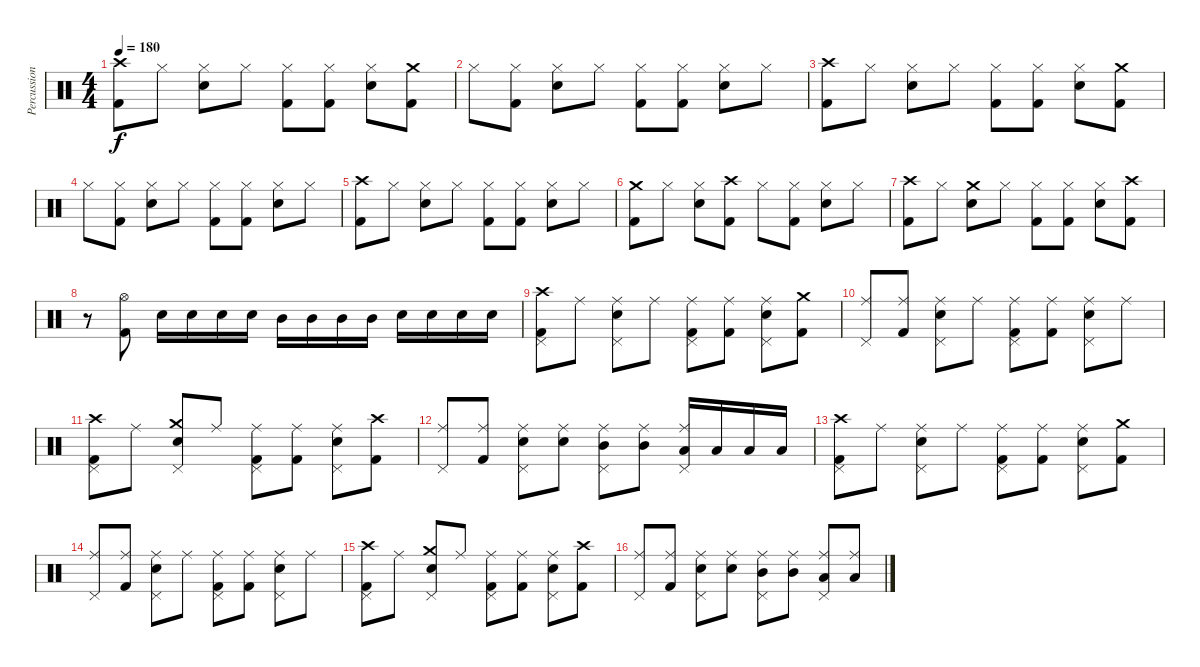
\track ("Percussion" "Percussion") {instrument percussion}
\staff {score}
\articulation defaults
\ts (4 4)
\tempo 180
\clef neutral
\ks c
("Crash high (hit)" "Kick (hit) 2").8{dy f} "Hi-Hat (closed)".8 ("Hi-Hat (closed)" "Electric Snare (hit)").8 "Hi-Hat (closed)".8 ("Hi-Hat (closed)" "Kick (hit) 2").8 ("Hi-Hat (closed)" "Kick (hit) 2").8 ("Hi-Hat (closed)" "Electric Snare (hit)").8 ("Crash medium (hit)" "Kick (hit) 2").8 |
"Hi-Hat (closed)".8 ("Hi-Hat (closed)" "Kick (hit) 2").8 ("Hi-Hat (closed)" "Electric Snare (hit)").8 "Hi-Hat (closed)".8 ("Hi-Hat (closed)" "Kick (hit) 2").8 ("Hi-Hat (closed)" "Kick (hit) 2").8 ("Hi-Hat (closed)" "Electric Snare (hit)").8 "Hi-Hat (closed)".8 |
("Crash high (hit)" "Kick (hit) 2").8 "Hi-Hat (closed)".8 ("Hi-Hat (closed)" "Electric Snare (hit)").8 "Hi-Hat (closed)".8 ("Hi-Hat (closed)" "Kick (hit) 2").8 ("Hi-Hat (closed)" "Kick (hit) 2").8 ("Hi-Hat (closed)" "Electric Snare (hit)").8 ("Crash medium (hit)" "Kick (hit) 2").8 |
"Hi-Hat (closed)".8 ("Hi-Hat (closed)" "Kick (hit) 2").8 ("Hi-Hat (closed)" "Electric Snare (hit)").8 "Hi-Hat (closed)".8 ("Hi-Hat (closed)" "Kick (hit) 2").8 ("Hi-Hat (closed)" "Kick (hit) 2").8 ("Hi-Hat (closed)" "Electric Snare (hit)").8 "Hi-Hat (closed)".8 |
("Crash high (hit)" "Kick (hit) 2").8 "Hi-Hat (closed)".8 ("Hi-Hat (closed)" "Electric Snare (hit)").8 "Hi-Hat (closed)".8 ("Hi-Hat (closed)" "Kick (hit) 2").8 ("Hi-Hat (closed)" "Kick (hit) 2").8 ("Hi-Hat (closed)" "Electric Snare (hit)").8 "Hi-Hat (closed)".8 |
("Crash medium (hit)" "Kick (hit) 2").8 "Hi-Hat (closed)".8 ("Hi-Hat (closed)" "Electric Snare (hit)").8 ("Crash high (hit)" "Kick (hit) 2").8 "Hi-Hat (closed)".8 ("Hi-Hat (closed)" "Kick (hit) 2").8 ("Hi-Hat (closed)" "Electric Snare (hit)").8 "Hi-Hat (closed)".8 |
("Crash high (hit)" "Kick (hit) 2").8 "Hi-Hat (closed)".8 ("Crash medium (hit)" "Electric Snare (hit)").8 "Hi-Hat (closed)".8 ("Hi-Hat (closed)" "Kick (hit) 2").8 ("Hi-Hat (closed)" "Kick (hit) 2").8 ("Hi-Hat (closed)" "Electric Snare (hit)").8 ("Crash high (hit)" "Kick (hit) 2").8 |
r.8 ("Hi-Hat (open)" "Kick (hit) 2").8 "Electric Snare (hit)".16 "Electric Snare (hit)".16 "Electric Snare (hit)".16 "Electric Snare (hit)".16 "Mid Tom (hit)".16 "Mid Tom (hit)".16 "Mid Tom (hit)".16 "Mid Tom (hit)".16 "Electric Snare (hit)".16 "Electric Snare (hit)".16 "Electric Snare (hit)".16 "Electric Snare (hit)".16 |
("Crash high (hit)" "Pedal Hi-Hat (hit)" "Kick (hit) 2").8 "Ride (middle)".8 ("Ride (middle)" "Pedal Hi-Hat (hit)" "Electric Snare (hit)").8 "Ride (middle)".8 ("Ride (middle)" "Pedal Hi-Hat (hit)" "Kick (hit) 2").8 ("Ride (middle)" "Kick (hit) 2").8 ("Ride (middle)" "Pedal Hi-Hat (hit)" "Electric Snare (hit)").8 ("Crash medium (hit)" "Kick (hit) 2").8 |
("Ride (middle)" "Pedal Hi-Hat (hit)").8 ("Ride (middle)" "Kick (hit) 2").8 ("Ride (middle)" "Pedal Hi-Hat (hit)" "Electric Snare (hit)").8 "Ride (middle)".8 ("Ride (middle)" "Pedal Hi-Hat (hit)" "Kick (hit) 2").8 ("Ride (middle)" "Kick (hit) 2").8 ("Ride (middle)" "Pedal Hi-Hat (hit)" "Electric Snare (hit)").8 "Ride (middle)".8 |
("Crash high (hit)" "Pedal Hi-Hat (hit)" "Kick (hit) 2").8 "Ride (middle)".8 ("Crash medium (hit)" "Pedal Hi-Hat (hit)" "Electric Snare (hit)").8 "Ride (middle)".8 ("Ride (middle)" "Pedal Hi-Hat (hit)" "Kick (hit) 2").8 ("Ride (middle)" "Kick (hit) 2").8 ("Ride (middle)" "Pedal Hi-Hat (hit)" "Electric Snare (hit)").8 ("Crash high (hit)" "Kick (hit) 2").8 |
("Ride (middle)" "Pedal Hi-Hat (hit)").8 ("Ride (middle)" "Kick (hit) 2").8 ("Ride (middle)" "Pedal Hi-Hat (hit)" "Electric Snare (hit)").8 ("Ride (middle)" "Electric Snare (hit)").8 ("Ride (middle)" "Pedal Hi-Hat (hit)" "Mid Tom (hit)").8 ("Ride (middle)" "Mid Tom (hit)").8 ("Ride (middle)" "Pedal Hi-Hat (hit)" "Low Tom (hit)").16 "Low Tom (hit)".16 "Low Tom (hit)".16 "Low Tom (hit)".16 |
("Crash high (hit)" "Pedal Hi-Hat (hit)" "Kick (hit) 2").8 "Ride (middle)".8 ("Ride (middle)" "Pedal Hi-Hat (hit)" "Electric Snare (hit)").8 "Ride (middle)".8 ("Ride (middle)" "Pedal Hi-Hat (hit)" "Kick (hit) 2").8 ("Ride (middle)" "Kick (hit) 2").8 ("Ride (middle)" "Pedal Hi-Hat (hit)" "Electric Snare (hit)").8 ("Crash medium (hit)" "Kick (hit) 2").8 |
("Ride (middle)" "Pedal Hi-Hat (hit)").8 ("Ride (middle)" "Kick (hit) 2").8 ("Ride (middle)" "Pedal Hi-Hat (hit)" "Electric Snare (hit)").8 "Ride (middle)".8 ("Ride (middle)" "Pedal Hi-Hat (hit)" "Kick (hit) 2").8 ("Ride (middle)" "Kick (hit) 2").8 ("Ride (middle)" "Pedal Hi-Hat (hit)" "Electric Snare (hit)").8 "Ride (middle)".8 |
("Crash high (hit)" "Pedal Hi-Hat (hit)" "Kick (hit) 2").8 "Ride (middle)".8 ("Crash medium (hit)" "Pedal Hi-Hat (hit)" "Electric Snare (hit)").8 "Ride (middle)".8 ("Ride (middle)" "Pedal Hi-Hat (hit)" "Kick (hit) 2").8 ("Ride (middle)" "Kick (hit) 2").8 ("Ride (middle)" "Pedal Hi-Hat (hit)" "Electric Snare (hit)").8 ("Crash high (hit)" "Kick (hit) 2").8 |
("Ride (middle)" "Pedal Hi-Hat (hit)").8 ("Ride (middle)" "Kick (hit) 2").8 ("Ride (middle)" "Pedal Hi-Hat (hit)" "Electric Snare (hit)").8 ("Ride (middle)" "Electric Snare (hit)").8 ("Ride (middle)" "Pedal Hi-Hat (hit)" "Mid Tom (hit)").8 ("Ride (middle)" "Mid Tom (hit)").8 ("Ride (middle)" "Pedal Hi-Hat (hit)" "Low Tom (hit)").8 ("Ride (middle)" "Low Tom (hit)").8
